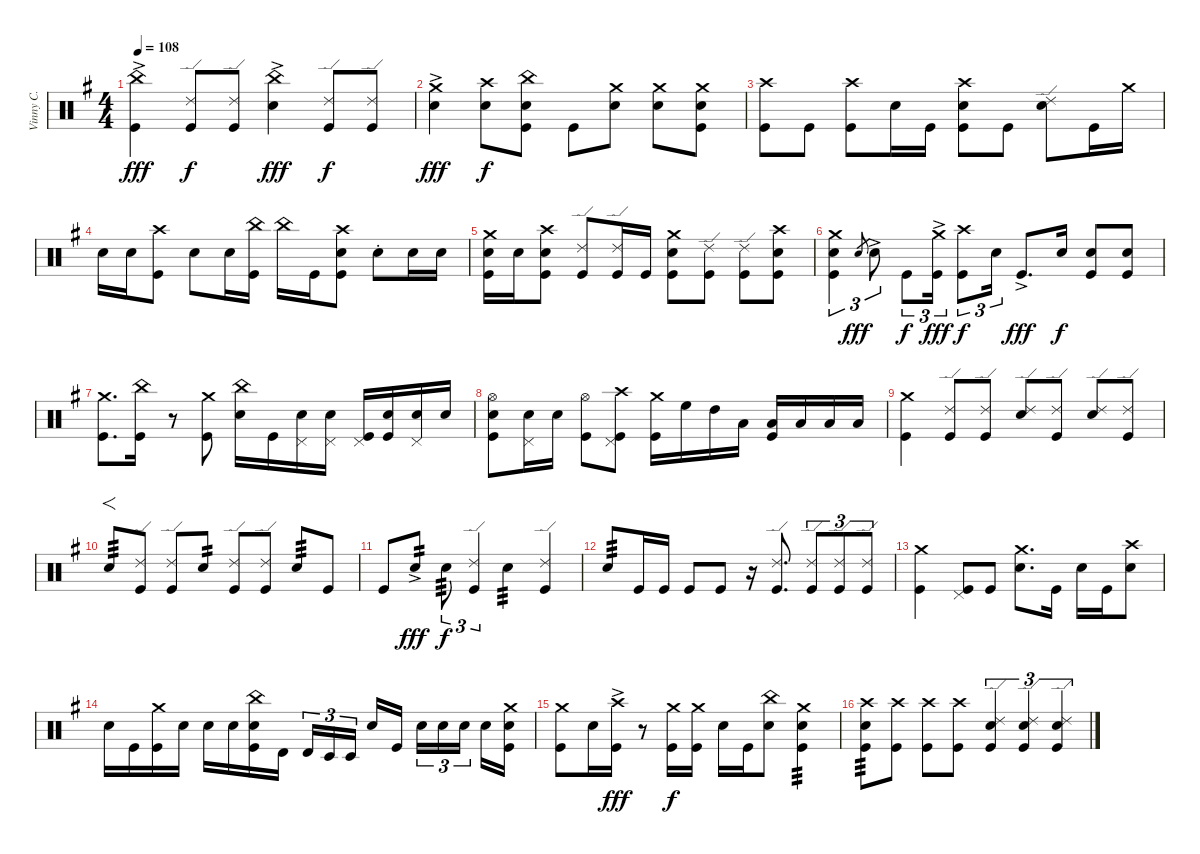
\track ("Vinny C." "Vinny C.") {instrument percussion}
\staff {score}
\articulation defaults
\ts (4 4)
\tempo 108
\clef neutral
\ks g
("China (hit)" "Kick (hit)"{ac}).4{dy fff} ("Ride (edge) 2" "Kick (hit)").8{dy f} ("Ride (edge) 2" "Kick (hit)").8 ("China (hit)" "Electric Snare (hit)"{ac}).4{dy fff} ("Ride (edge) 2" "Kick (hit)").8{dy f} ("Ride (edge) 2" "Kick (hit)").8 |
("Crash medium (hit)" "Electric Snare (hit)"{ac}).4{dy fff} ("Crash high (hit)" "Electric Snare (hit)").8{dy f} ("China (hit)" "Electric Snare (hit)" "Kick (hit)").8 "Kick (hit)".8 ("Crash medium (hit)" "Electric Snare (hit)").8 ("Crash medium (hit)" "Electric Snare (hit)").8 ("Crash medium (hit)" "Electric Snare (hit)" "Kick (hit)").8 |
("Crash high (hit)" "Kick (hit)").8 "Kick (hit)".8 ("Crash high (hit)" "Kick (hit)").8 "Electric Snare (hit)".16 "Kick (hit)".16 ("Crash high (hit)" "Electric Snare (hit)" "Kick (hit)").8 "Kick (hit)".8 ("Ride (edge) 2" "Electric Snare (hit)").8 "Kick (hit)".16 "Crash medium (hit)".16 |
"Electric Snare (hit)".16 "Electric Snare (hit)".16 ("Crash high (hit)" "Kick (hit)").8 "Electric Snare (hit)".8 "Electric Snare (hit)".16 ("China (hit)" "Kick (hit)").16 "China (hit)".16 "Kick (hit)".16 ("Crash high (hit)" "Electric Snare (hit)" "Kick (hit)").8 "Electric Snare (hit)"{st}.8 "Electric Snare (hit)".16 "Electric Snare (hit)".16 |
("Crash medium (hit)" "Electric Snare (hit)" "Kick (hit)").16 "Electric Snare (hit)".16 ("Crash high (hit)" "Electric Snare (hit)" "Kick (hit)").8 ("Ride (edge) 2" "Kick (hit)").8 ("Ride (edge) 2" "Kick (hit)").16 "Kick (hit)".16 ("Crash medium (hit)" "Electric Snare (hit)" "Kick (hit)").8 ("Ride (edge) 2" "Kick (hit)").8 ("Ride (edge) 2" "Kick (hit)").8 ("Crash high (hit)" "Electric Snare (hit)" "Kick (hit)").8 |
("Crash medium (hit)" "Electric Snare (hit)" "Kick (hit)").4{tu (3 2)} "Electric Snare (hit)".8{gr dy fff} "Electric Snare (hit)"{ac}.8{tu (3 2)} "Kick (hit)".8{tu (3 2) dy f} ("Crash medium (hit)"{ac} "Kick (hit)").16{tu (3 2) dy fff} ("Crash high (hit)" "Kick (hit)").8{tu (3 2) dy f} "Electric Snare (hit)".16{tu (3 2)} "Kick (hit)"{ac}.8{d dy fff} "Electric Snare (hit)".16{dy f} ("Electric Snare (hit)" "Kick (hit)").8 ("Electric Snare (hit)" "Kick (hit)").8 |
("Crash medium (hit)" "Kick (hit)").8{d} ("China (hit)" "Kick (hit)").16 r.8 ("Crash medium (hit)" "Kick (hit)").8 ("China (hit)" "Electric Snare (hit)").16 "Kick (hit)".16 ("Pedal Hi-Hat (hit)" "Electric Snare (hit)").16 ("Pedal Hi-Hat (hit)" "Electric Snare (hit)").16 ("Pedal Hi-Hat (hit)" "Kick (hit)").16 ("Electric Snare (hit)" "Kick (hit)").16 ("Pedal Hi-Hat (hit)" "Electric Snare (hit)").16 "Electric Snare (hit)".16 |
("Hi-Hat (open)" "Electric Snare (hit)" "Kick (hit)").8 ("Pedal Hi-Hat (hit)" "Electric Snare (hit)").16 "Electric Snare (hit)".16 ("Hi-Hat (open)" "Kick (hit)").8 ("Pedal Hi-Hat (hit)" "Crash high (hit)" "Kick (hit)").8 ("Crash medium (hit)" "Kick (hit)").16 "High Floor Tom (hit)".16 "High Tom (hit)".16 "Low Tom (hit)".16 ("Low Tom (hit)" "Kick (hit)").16 "Low Tom (hit)".16 "Low Tom (hit)".16 "Low Tom (hit)".16 |
("Crash medium (hit)" "Kick (hit)").4 ("Ride (edge) 2" "Kick (hit)").8 ("Ride (edge) 2" "Kick (hit)").8 ("Ride (edge) 2" "Electric Snare (hit)").8 ("Ride (edge) 2" "Kick (hit)").8 ("Ride (edge) 2" "Electric Snare (hit)").8 ("Ride (edge) 2" "Kick (hit)").8 |
"Electric Snare (hit)".8{f tp 3} ("Ride (edge) 2" "Kick (hit)").8 ("Ride (edge) 2" "Kick (hit)").8 "Electric Snare (hit)".8{tp 2} ("Ride (edge) 2" "Kick (hit)").8 ("Ride (edge) 2" "Kick (hit)").8 "Electric Snare (hit)".8{tp 3} "Kick (hit)".8 |
"Kick (hit)".8 "Electric Snare (hit)"{ac}.8{tp 2 dy fff} "Electric Snare (hit)".8{tu (3 2) tp 3 dy f} ("Ride (edge) 2" "Kick (hit)").4{tu (3 2)} "Electric Snare (hit)".4{tp 3} ("Ride (edge) 2" "Kick (hit)").4 |
"Electric Snare (hit)".8{tp 3} "Kick (hit)".16 "Kick (hit)".16 "Kick (hit)".8 "Kick (hit)".8 r.16 ("Ride (edge) 2" "Kick (hit)").8{d} ("Ride (edge) 2" "Kick (hit)").8{tu (3 2)} ("Ride (edge) 2" "Kick (hit)").8{tu (3 2)} ("Ride (edge) 2" "Kick (hit)").8{tu (3 2)} |
("Crash medium (hit)" "Kick (hit)").4 ("Pedal Hi-Hat (hit)" "Kick (hit)").8 "Kick (hit)".8 ("Crash medium (hit)" "Electric Snare (hit)").8{d} "Kick (hit)".16 "Electric Snare (hit)".16 "Kick (hit)".16 ("Crash high (hit)" "Electric Snare (hit)").8 |
"Electric Snare (hit)".16 "Kick (hit)".16 ("Crash medium (hit)" "Kick (hit)").16 "Electric Snare (hit)".16 "Electric Snare (hit)".16 "Electric Snare (hit)".16 ("China (hit)" "Electric Snare (hit)" "Kick (hit)").16 "Timbale high (hit)".16 "Timbale high (hit)".16{tu (3 2)} "Timbale low (hit)".16{tu (3 2)} "Timbale low (hit)".16{tu (3 2)} "Electric Snare (hit)".16 "Kick (hit)".16 "Electric Snare (hit)".16{tu (3 2)} "Electric Snare (hit)".16{tu (3 2)} "Electric Snare (hit)".16{tu (3 2)} "Electric Snare (hit)".16 ("Crash medium (hit)" "Electric Snare (hit)" "Kick (hit)").16 |
("Crash medium (hit)" "Kick (hit)").8 "Electric Snare (hit)".16 ("Crash high (hit)"{ac} "Kick (hit)").16{dy fff} r.8 ("Crash medium (hit)" "Kick (hit)").16{dy f} ("Crash medium (hit)" "Kick (hit)").16 "Electric Snare (hit)".16 "Kick (hit)".16 ("China (hit)" "Electric Snare (hit)").8 ("Crash medium (hit)" "Electric Snare (hit)" "Kick (hit)").4{tp 3} |
("Crash high (hit)" "Electric Snare (hit)" "Kick (hit)").8{tp 3} ("Crash high (hit)" "Kick (hit)").8 ("Crash high (hit)" "Kick (hit)").8 ("Crash high (hit)" "Kick (hit)").8 ("Ride (edge) 2" "Electric Snare (hit)" "Kick (hit)").4{tu (3 2)} ("Ride (edge) 2" "Electric Snare (hit)" "Kick (hit)").4{tu (3 2)} ("Ride (edge) 2" "Electric Snare (hit)" "Kick (hit)").4{tu (3 2)}
